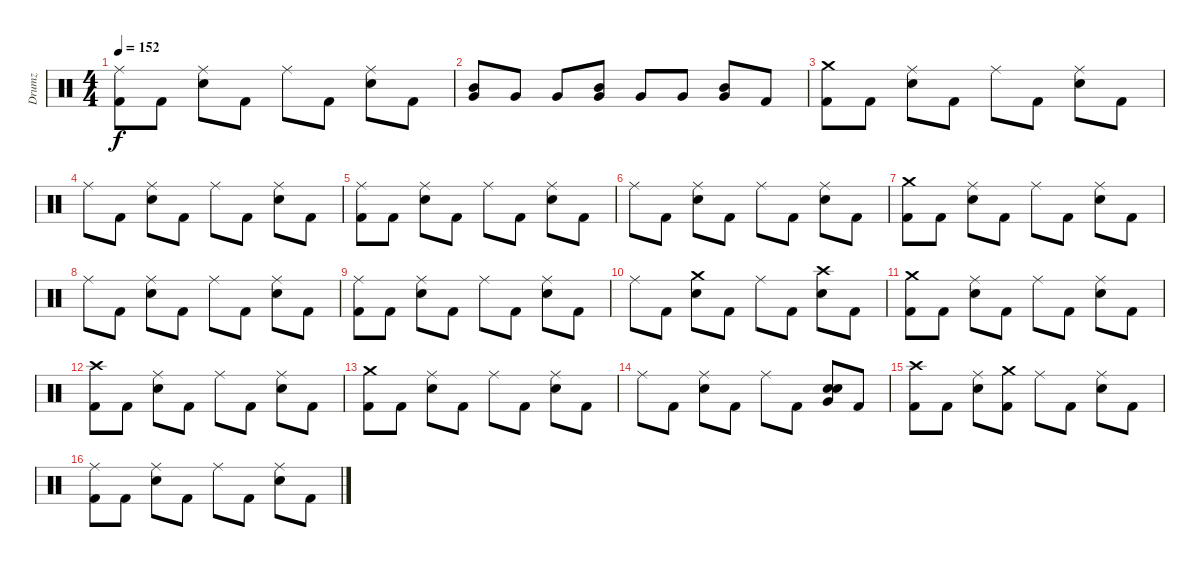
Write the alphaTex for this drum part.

\track ("Drumz" "Drumz") {instrument percussion}
\staff {score}
\articulation defaults
\ts (4 4)
\tempo 152
\clef neutral
\ks c
("Kick (hit) 2" "Ride (middle)").8{dy f} "Kick (hit) 2".8 ("Snare (hit) 2" "Ride (middle)").8 "Kick (hit) 2".8 "Ride (middle)".8 "Kick (hit) 2".8 ("Snare (hit) 2" "Ride (middle)").8 "Kick (hit) 2".8 |
("Mid Tom (hit)" "Very Low Tom (hit)").8 "Very Low Tom (hit)".8 "Very Low Tom (hit)".8 ("Mid Tom (hit)" "Very Low Tom (hit)").8 "Very Low Tom (hit)".8 "Very Low Tom (hit)".8 ("Mid Tom (hit)" "Very Low Tom (hit)").8 "Kick (hit) 2".8 |
("Kick (hit) 2" "Crash medium (hit)").8 "Kick (hit) 2".8 ("Snare (hit) 2" "Ride (middle)").8 "Kick (hit) 2".8 "Ride (middle)".8 "Kick (hit) 2".8 ("Snare (hit) 2" "Ride (middle)").8 "Kick (hit) 2".8 |
"Ride (middle)".8 "Kick (hit) 2".8 ("Snare (hit) 2" "Ride (middle)").8 "Kick (hit) 2".8 "Ride (middle)".8 "Kick (hit) 2".8 ("Snare (hit) 2" "Ride (middle)").8 "Kick (hit) 2".8 |
("Kick (hit) 2" "Ride (middle)").8 "Kick (hit) 2".8 ("Snare (hit) 2" "Ride (middle)").8 "Kick (hit) 2".8 "Ride (middle)".8 "Kick (hit) 2".8 ("Snare (hit) 2" "Ride (middle)").8 "Kick (hit) 2".8 |
"Ride (middle)".8 "Kick (hit) 2".8 ("Snare (hit) 2" "Ride (middle)").8 "Kick (hit) 2".8 "Ride (middle)".8 "Kick (hit) 2".8 ("Snare (hit) 2" "Ride (middle)").8 "Kick (hit) 2".8 |
("Kick (hit) 2" "Crash medium (hit)").8 "Kick (hit) 2".8 ("Snare (hit) 2" "Ride (middle)").8 "Kick (hit) 2".8 "Ride (middle)".8 "Kick (hit) 2".8 ("Snare (hit) 2" "Ride (middle)").8 "Kick (hit) 2".8 |
"Ride (middle)".8 "Kick (hit) 2".8 ("Snare (hit) 2" "Ride (middle)").8 "Kick (hit) 2".8 "Ride (middle)".8 "Kick (hit) 2".8 ("Snare (hit) 2" "Ride (middle)").8 "Kick (hit) 2".8 |
("Kick (hit) 2" "Ride (middle)").8 "Kick (hit) 2".8 ("Snare (hit) 2" "Ride (middle)").8 "Kick (hit) 2".8 "Ride (middle)".8 "Kick (hit) 2".8 ("Snare (hit) 2" "Ride (middle)").8 "Kick (hit) 2".8 |
"Ride (middle)".8 "Kick (hit) 2".8 ("Snare (hit) 2" "Crash medium (hit)").8 "Kick (hit) 2".8 "Ride (middle)".8 "Kick (hit) 2".8 ("Snare (hit) 2" "Crash high (hit)").8 "Kick (hit) 2".8 |
("Kick (hit) 2" "Crash medium (hit)").8 "Kick (hit) 2".8 ("Snare (hit) 2" "Ride (middle)").8 "Kick (hit) 2".8 "Ride (middle)".8 "Kick (hit) 2".8 ("Snare (hit) 2" "Ride (middle)").8 "Kick (hit) 2".8 |
("Kick (hit) 2" "Crash high (hit)").8 "Kick (hit) 2".8 ("Snare (hit) 2" "Ride (middle)").8 "Kick (hit) 2".8 "Ride (middle)".8 "Kick (hit) 2".8 ("Snare (hit) 2" "Ride (middle)").8 "Kick (hit) 2".8 |
("Kick (hit) 2" "Crash medium (hit)").8 "Kick (hit) 2".8 ("Snare (hit) 2" "Ride (middle)").8 "Kick (hit) 2".8 "Ride (middle)".8 "Kick (hit) 2".8 ("Snare (hit) 2" "Ride (middle)").8 "Kick (hit) 2".8 |
"Ride (middle)".8 "Kick (hit) 2".8 ("Snare (hit) 2" "Ride (middle)").8 "Kick (hit) 2".8 "Ride (middle)".8 "Kick (hit) 2".8 ("Snare (hit) 2" "Snare (hit) 2" "Very Low Tom (hit)").8 "Kick (hit) 2".8 |
("Kick (hit) 2" "Crash high (hit)").8 "Kick (hit) 2".8 ("Snare (hit) 2" "Ride (middle)").8 ("Kick (hit) 2" "Crash medium (hit)").8 "Ride (middle)".8 "Kick (hit) 2".8 ("Snare (hit) 2" "Ride (middle)").8 "Kick (hit) 2".8 |
("Kick (hit) 2" "Ride (middle)").8 "Kick (hit) 2".8 ("Snare (hit) 2" "Ride (middle)").8 "Kick (hit) 2".8 "Ride (middle)".8 "Kick (hit) 2".8 ("Snare (hit) 2" "Ride (middle)").8 "Kick (hit) 2".8
